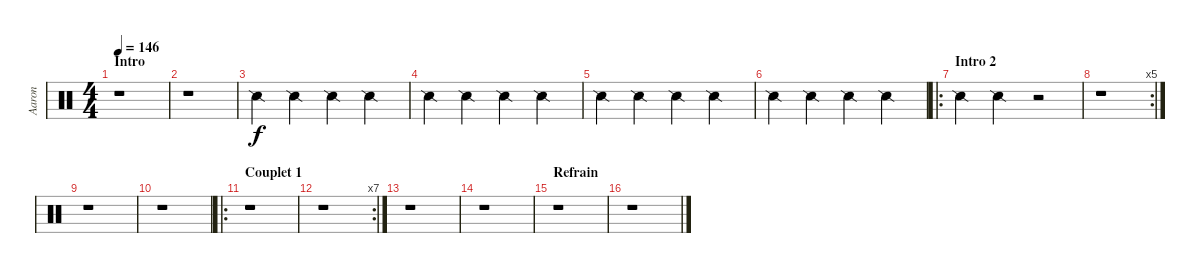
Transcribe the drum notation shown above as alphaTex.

\track ("Aaron" "Aaron") {instrument percussion}
\staff {score}
\articulation defaults
\ts (4 4)
\section ("" "Intro")
\tempo 146
\clef neutral
\ks c
r.1{dy f} |
r.1 |
"Snare (side stick) 2".4 "Snare (side stick) 2".4 "Snare (side stick) 2".4 "Snare (side stick) 2".4 |
"Snare (side stick) 2".4 "Snare (side stick) 2".4 "Snare (side stick) 2".4 "Snare (side stick) 2".4 |
"Snare (side stick) 2".4 "Snare (side stick) 2".4 "Snare (side stick) 2".4 "Snare (side stick) 2".4 |
"Snare (side stick) 2".4 "Snare (side stick) 2".4 "Snare (side stick) 2".4 "Snare (side stick) 2".4 |
\ro
\section ("" "Intro 2")
"Snare (side stick) 2".4 "Snare (side stick) 2".4 r.2 |
\rc 5
r.1 |
r.1 |
r.1 |
\ro
\section ("" "Couplet 1")
r.1 |
\rc 7
r.1 |
r.1 |
r.1 |
\section ("" "Refrain")
r.1 |
r.1
